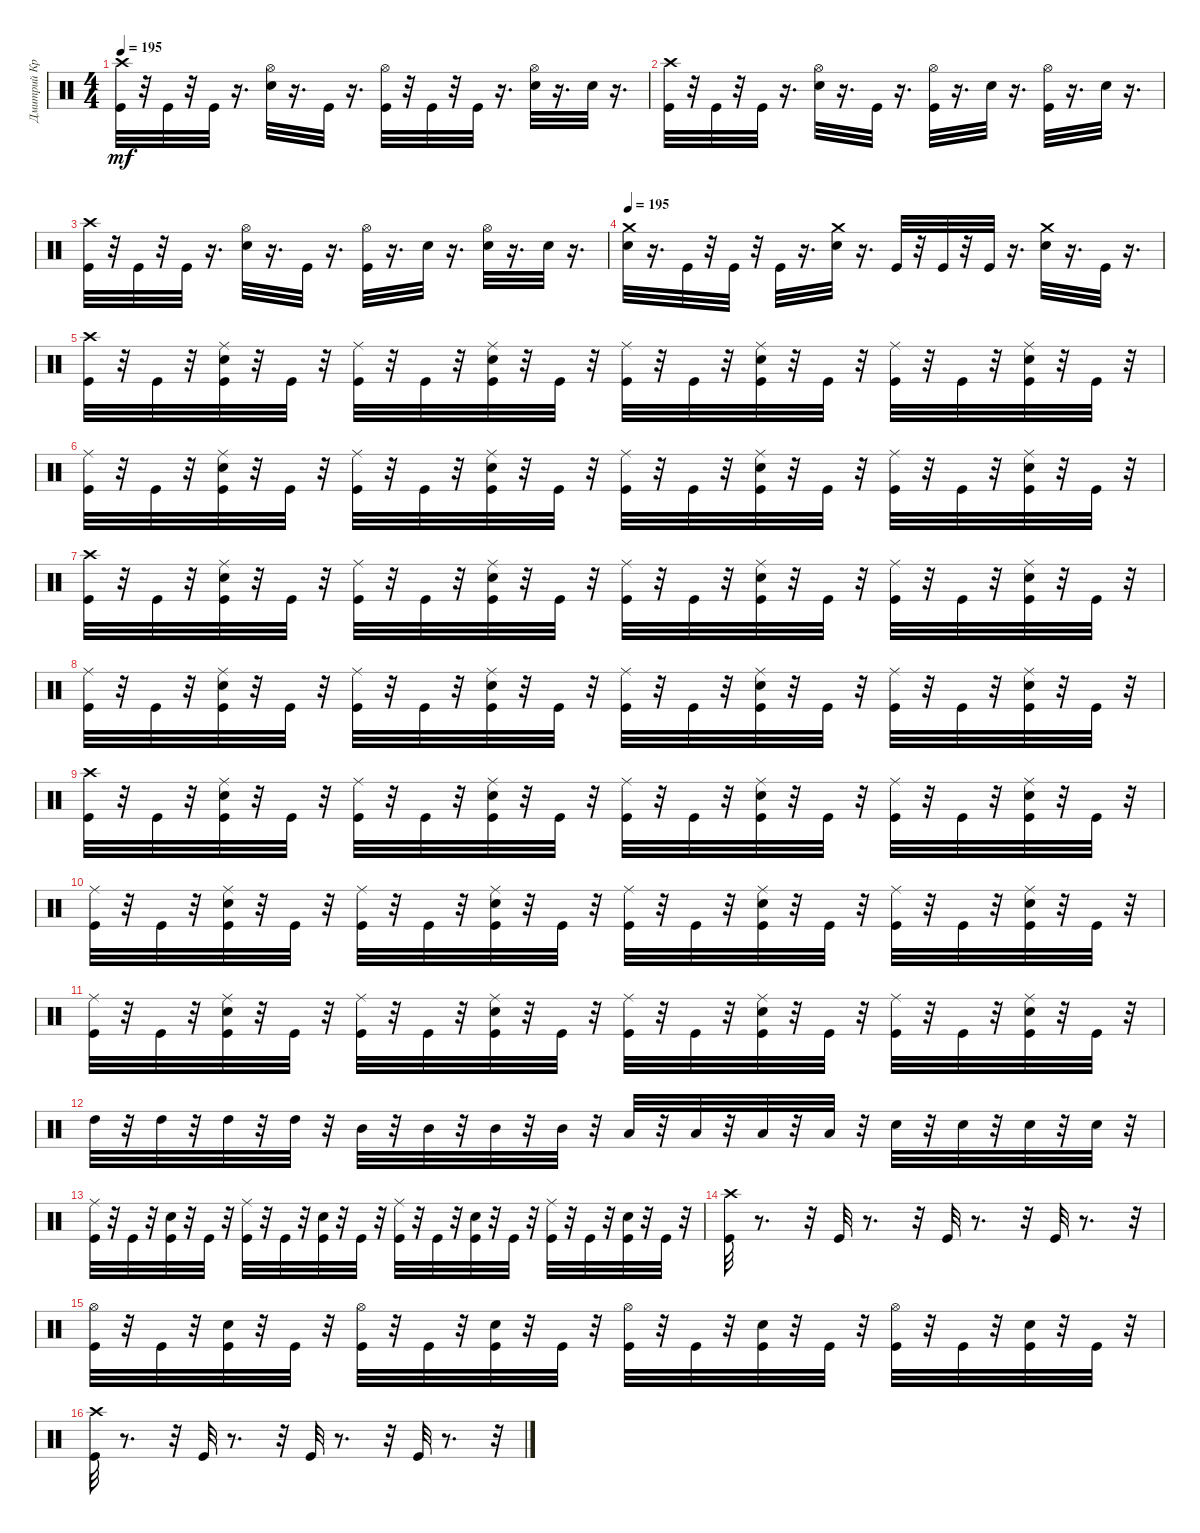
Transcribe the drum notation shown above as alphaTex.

\track ("Дмитрий Кривенков" "Дмитрий Кр") {instrument percussion}
\staff {score}
\articulation defaults
\ts (4 4)
\tempo 195
\clef neutral
\ks c
("Crash high (hit)" "Kick (hit)").32{dy mf} r.32 "Kick (hit)".32 r.32 "Kick (hit)".32 r.16{d} ("Electric Snare (hit)" "Hi-Hat (open)").32 r.16{d} "Kick (hit)".32 r.16{d} ("Kick (hit)" "Hi-Hat (open)").32 r.32 "Kick (hit)".32 r.32 "Kick (hit)".32 r.16{d} ("Electric Snare (hit)" "Hi-Hat (open)").32 r.16{d} "Electric Snare (hit)".32 r.16{d} |
("Crash high (hit)" "Kick (hit)").32 r.32 "Kick (hit)".32 r.32 "Kick (hit)".32 r.16{d} ("Electric Snare (hit)" "Hi-Hat (open)").32 r.16{d} "Kick (hit)".32 r.16{d} ("Kick (hit)" "Hi-Hat (open)").32 r.16{d} "Electric Snare (hit)".32 r.16{d} ("Kick (hit)" "Hi-Hat (open)").32 r.16{d} "Electric Snare (hit)".32 r.16{d} |
("Crash high (hit)" "Kick (hit)").32 r.32 "Kick (hit)".32 r.32 "Kick (hit)".32 r.16{d} ("Electric Snare (hit)" "Hi-Hat (open)").32 r.16{d} "Kick (hit)".32 r.16{d} ("Kick (hit)" "Hi-Hat (open)").32 r.16{d} "Electric Snare (hit)".32 r.16{d} ("Electric Snare (hit)" "Hi-Hat (open)").32 r.16{d} "Electric Snare (hit)".32 r.16{d} |
\tempo 195
("Crash medium (hit)" "Electric Snare (hit)").32 r.16{d} "Kick (hit)".32 r.32 "Kick (hit)".32 r.32 "Kick (hit)".32 r.16{d} ("Crash medium (hit)" "Electric Snare (hit)").32 r.16{d} "Kick (hit)".32 r.32 "Kick (hit)".32 r.32 "Kick (hit)".32 r.16{d} ("Crash medium (hit)" "Electric Snare (hit)").32 r.16{d} "Kick (hit)".32 r.16{d} |
("Crash high (hit)" "Kick (hit)").32 r.32 "Kick (hit)".32 r.32 ("Electric Snare (hit)" "Kick (hit)" "Ride (middle)").32 r.32 "Kick (hit)".32 r.32 ("Ride (middle)" "Kick (hit)").32 r.32 "Kick (hit)".32 r.32 ("Ride (middle)" "Electric Snare (hit)" "Kick (hit)").32 r.32 "Kick (hit)".32 r.32 ("Ride (middle)" "Kick (hit)").32 r.32 "Kick (hit)".32 r.32 ("Ride (middle)" "Kick (hit)" "Electric Snare (hit)").32 r.32 "Kick (hit)".32 r.32 ("Ride (middle)" "Kick (hit)").32 r.32 "Kick (hit)".32 r.32 ("Ride (middle)" "Electric Snare (hit)" "Kick (hit)").32 r.32 "Kick (hit)".32 r.32 |
("Ride (middle)" "Kick (hit)").32 r.32 "Kick (hit)".32 r.32 ("Electric Snare (hit)" "Kick (hit)" "Ride (middle)").32 r.32 "Kick (hit)".32 r.32 ("Ride (middle)" "Kick (hit)").32 r.32 "Kick (hit)".32 r.32 ("Ride (middle)" "Electric Snare (hit)" "Kick (hit)").32 r.32 "Kick (hit)".32 r.32 ("Ride (middle)" "Kick (hit)").32 r.32 "Kick (hit)".32 r.32 ("Ride (middle)" "Kick (hit)" "Electric Snare (hit)").32 r.32 "Kick (hit)".32 r.32 ("Ride (middle)" "Kick (hit)").32 r.32 "Kick (hit)".32 r.32 ("Ride (middle)" "Electric Snare (hit)" "Kick (hit)").32 r.32 "Kick (hit)".32 r.32 |
("Crash high (hit)" "Kick (hit)").32 r.32 "Kick (hit)".32 r.32 ("Electric Snare (hit)" "Kick (hit)" "Ride (middle)").32 r.32 "Kick (hit)".32 r.32 ("Ride (middle)" "Kick (hit)").32 r.32 "Kick (hit)".32 r.32 ("Ride (middle)" "Electric Snare (hit)" "Kick (hit)").32 r.32 "Kick (hit)".32 r.32 ("Ride (middle)" "Kick (hit)").32 r.32 "Kick (hit)".32 r.32 ("Ride (middle)" "Kick (hit)" "Electric Snare (hit)").32 r.32 "Kick (hit)".32 r.32 ("Ride (middle)" "Kick (hit)").32 r.32 "Kick (hit)".32 r.32 ("Ride (middle)" "Electric Snare (hit)" "Kick (hit)").32 r.32 "Kick (hit)".32 r.32 |
("Ride (middle)" "Kick (hit)").32 r.32 "Kick (hit)".32 r.32 ("Electric Snare (hit)" "Kick (hit)" "Ride (middle)").32 r.32 "Kick (hit)".32 r.32 ("Ride (middle)" "Kick (hit)").32 r.32 "Kick (hit)".32 r.32 ("Ride (middle)" "Electric Snare (hit)" "Kick (hit)").32 r.32 "Kick (hit)".32 r.32 ("Ride (middle)" "Kick (hit)").32 r.32 "Kick (hit)".32 r.32 ("Ride (middle)" "Kick (hit)" "Electric Snare (hit)").32 r.32 "Kick (hit)".32 r.32 ("Ride (middle)" "Kick (hit)").32 r.32 "Kick (hit)".32 r.32 ("Ride (middle)" "Electric Snare (hit)" "Kick (hit)").32 r.32 "Kick (hit)".32 r.32 |
("Crash high (hit)" "Kick (hit)").32 r.32 "Kick (hit)".32 r.32 ("Electric Snare (hit)" "Kick (hit)" "Ride (middle)").32 r.32 "Kick (hit)".32 r.32 ("Ride (middle)" "Kick (hit)").32 r.32 "Kick (hit)".32 r.32 ("Ride (middle)" "Electric Snare (hit)" "Kick (hit)").32 r.32 "Kick (hit)".32 r.32 ("Ride (middle)" "Kick (hit)").32 r.32 "Kick (hit)".32 r.32 ("Ride (middle)" "Kick (hit)" "Electric Snare (hit)").32 r.32 "Kick (hit)".32 r.32 ("Ride (middle)" "Kick (hit)").32 r.32 "Kick (hit)".32 r.32 ("Ride (middle)" "Electric Snare (hit)" "Kick (hit)").32 r.32 "Kick (hit)".32 r.32 |
("Ride (middle)" "Kick (hit)").32 r.32 "Kick (hit)".32 r.32 ("Electric Snare (hit)" "Kick (hit)" "Ride (middle)").32 r.32 "Kick (hit)".32 r.32 ("Ride (middle)" "Kick (hit)").32 r.32 "Kick (hit)".32 r.32 ("Ride (middle)" "Electric Snare (hit)" "Kick (hit)").32 r.32 "Kick (hit)".32 r.32 ("Ride (middle)" "Kick (hit)").32 r.32 "Kick (hit)".32 r.32 ("Ride (middle)" "Kick (hit)" "Electric Snare (hit)").32 r.32 "Kick (hit)".32 r.32 ("Ride (middle)" "Kick (hit)").32 r.32 "Kick (hit)".32 r.32 ("Ride (middle)" "Electric Snare (hit)" "Kick (hit)").32 r.32 "Kick (hit)".32 r.32 |
("Ride (middle)" "Kick (hit)").32 r.32 "Kick (hit)".32 r.32 ("Electric Snare (hit)" "Kick (hit)" "Ride (middle)").32 r.32 "Kick (hit)".32 r.32 ("Ride (middle)" "Kick (hit)").32 r.32 "Kick (hit)".32 r.32 ("Ride (middle)" "Electric Snare (hit)" "Kick (hit)").32 r.32 "Kick (hit)".32 r.32 ("Ride (middle)" "Kick (hit)").32 r.32 "Kick (hit)".32 r.32 ("Ride (middle)" "Kick (hit)" "Electric Snare (hit)").32 r.32 "Kick (hit)".32 r.32 ("Ride (middle)" "Kick (hit)").32 r.32 "Kick (hit)".32 r.32 ("Ride (middle)" "Electric Snare (hit)" "Kick (hit)").32 r.32 "Kick (hit)".32 r.32 |
"High Tom (hit)".32 r.32 "High Tom (hit)".32 r.32 "High Tom (hit)".32 r.32 "High Tom (hit)".32 r.32 "Mid Tom (hit)".32 r.32 "Mid Tom (hit)".32 r.32 "Mid Tom (hit)".32 r.32 "Mid Tom (hit)".32 r.32 "Low Tom (hit)".32 r.32 "Low Tom (hit)".32 r.32 "Low Tom (hit)".32 r.32 "Low Tom (hit)".32 r.32 "Electric Snare (hit)".32 r.32 "Electric Snare (hit)".32 r.32 "Electric Snare (hit)".32 r.32 "Electric Snare (hit)".32 r.32 |
("Kick (hit)" "Ride (middle)").32 r.32 "Kick (hit)".32 r.32 ("Kick (hit)" "Electric Snare (hit)").32 r.32 "Kick (hit)".32 r.32 ("Ride (middle)" "Kick (hit)").32 r.32 "Kick (hit)".32 r.32 ("Electric Snare (hit)" "Kick (hit)").32 r.32 "Kick (hit)".32 r.32 ("Kick (hit)" "Ride (middle)").32 r.32 "Kick (hit)".32 r.32 ("Electric Snare (hit)" "Kick (hit)").32 r.32 "Kick (hit)".32 r.32 ("Kick (hit)" "Ride (middle)").32 r.32 "Kick (hit)".32 r.32 ("Kick (hit)" "Electric Snare (hit)").32 r.32 "Kick (hit)".32 r.32 |
("Crash high (hit)" "Kick (hit)").32 r.8{d} r.32 "Kick (hit)".32 r.8{d} r.32 "Kick (hit)".32 r.8{d} r.32 "Kick (hit)".32 r.8{d} r.32 |
("Hi-Hat (open)" "Kick (hit)").32 r.32 "Kick (hit)".32 r.32 ("Electric Snare (hit)" "Kick (hit)").32 r.32 "Kick (hit)".32 r.32 ("Hi-Hat (open)" "Kick (hit)").32 r.32 "Kick (hit)".32 r.32 ("Electric Snare (hit)" "Kick (hit)").32 r.32 "Kick (hit)".32 r.32 ("Hi-Hat (open)" "Kick (hit)").32 r.32 "Kick (hit)".32 r.32 ("Electric Snare (hit)" "Kick (hit)").32 r.32 "Kick (hit)".32 r.32 ("Hi-Hat (open)" "Kick (hit)").32 r.32 "Kick (hit)".32 r.32 ("Electric Snare (hit)" "Kick (hit)").32 r.32 "Kick (hit)".32 r.32 |
("Crash high (hit)" "Kick (hit)").32 r.8{d} r.32 "Kick (hit)".32 r.8{d} r.32 "Kick (hit)".32 r.8{d} r.32 "Kick (hit)".32 r.8{d} r.32
